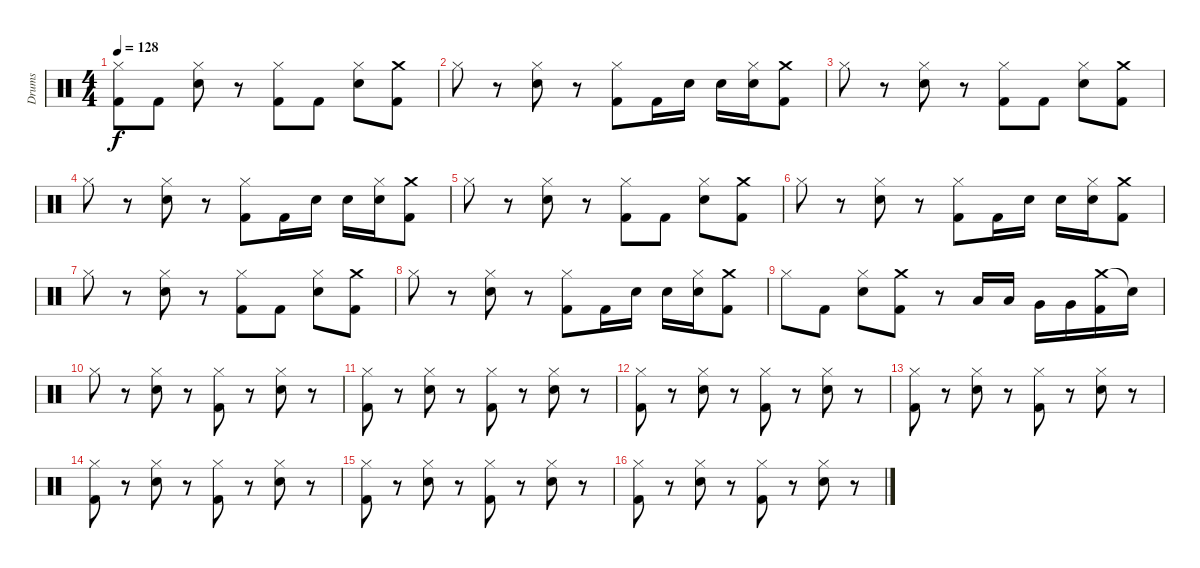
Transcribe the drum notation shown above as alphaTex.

\track ("Drums" "Drums") {instrument percussion}
\staff {score}
\articulation defaults
\ts (4 4)
\tempo 128
\clef neutral
\ks c
("Hi-Hat (closed)" "Kick (hit) 2").8{dy f} "Kick (hit) 2".8 ("Hi-Hat (closed)" "Snare (hit) 2").8 r.8 ("Hi-Hat (closed)" "Kick (hit) 2").8 "Kick (hit) 2".8 ("Hi-Hat (closed)" "Snare (hit) 2").8 ("Crash medium (hit)" "Kick (hit) 2").8 |
"Hi-Hat (closed)".8 r.8 ("Hi-Hat (closed)" "Snare (hit) 2").8 r.8 ("Hi-Hat (closed)" "Kick (hit) 2").8 "Kick (hit) 2".16 "Snare (hit) 2".16 "Snare (hit) 2".16 ("Hi-Hat (closed)" "Snare (hit) 2").16 ("Crash medium (hit)" "Kick (hit) 2").8 |
"Hi-Hat (closed)".8 r.8 ("Hi-Hat (closed)" "Snare (hit) 2").8 r.8 ("Hi-Hat (closed)" "Kick (hit) 2").8 "Kick (hit) 2".8 ("Hi-Hat (closed)" "Snare (hit) 2").8 ("Crash medium (hit)" "Kick (hit) 2").8 |
"Hi-Hat (closed)".8 r.8 ("Hi-Hat (closed)" "Snare (hit) 2").8 r.8 ("Hi-Hat (closed)" "Kick (hit) 2").8 "Kick (hit) 2".16 "Snare (hit) 2".16 "Snare (hit) 2".16 ("Hi-Hat (closed)" "Snare (hit) 2").16 ("Crash medium (hit)" "Kick (hit) 2").8 |
"Hi-Hat (closed)".8 r.8 ("Hi-Hat (closed)" "Snare (hit) 2").8 r.8 ("Hi-Hat (closed)" "Kick (hit) 2").8 "Kick (hit) 2".8 ("Hi-Hat (closed)" "Snare (hit) 2").8 ("Crash medium (hit)" "Kick (hit) 2").8 |
"Hi-Hat (closed)".8 r.8 ("Hi-Hat (closed)" "Snare (hit) 2").8 r.8 ("Hi-Hat (closed)" "Kick (hit) 2").8 "Kick (hit) 2".16 "Snare (hit) 2".16 "Snare (hit) 2".16 ("Hi-Hat (closed)" "Snare (hit) 2").16 ("Crash medium (hit)" "Kick (hit) 2").8 |
"Hi-Hat (closed)".8 r.8 ("Hi-Hat (closed)" "Snare (hit) 2").8 r.8 ("Hi-Hat (closed)" "Kick (hit) 2").8 "Kick (hit) 2".8 ("Hi-Hat (closed)" "Snare (hit) 2").8 ("Crash medium (hit)" "Kick (hit) 2").8 |
"Hi-Hat (closed)".8 r.8 ("Hi-Hat (closed)" "Snare (hit) 2").8 r.8 ("Hi-Hat (closed)" "Kick (hit) 2").8 "Kick (hit) 2".16 "Snare (hit) 2".16 "Snare (hit) 2".16 ("Hi-Hat (closed)" "Snare (hit) 2").16 ("Crash medium (hit)" "Kick (hit) 2").8 |
"Hi-Hat (closed)".8 "Kick (hit) 2".8 ("Hi-Hat (closed)" "Snare (hit) 2").8 ("Crash medium (hit)" "Kick (hit) 2").8 r.8 "Low Tom (hit)".16 "Low Tom (hit)".16 "Very Low Tom (hit)".16 "Very Low Tom (hit)".16 ("Crash medium (hit)" "Kick (hit) 2").16 "Snare (hit)"{t}.16 |
"Hi-Hat (closed)".8 r.8 ("Hi-Hat (closed)" "Snare (hit) 2").8 r.8 ("Hi-Hat (closed)" "Kick (hit) 2").8 r.8 ("Hi-Hat (closed)" "Snare (hit) 2").8 r.8 |
("Hi-Hat (closed)" "Kick (hit) 2").8 r.8 ("Hi-Hat (closed)" "Snare (hit) 2").8 r.8 ("Hi-Hat (closed)" "Kick (hit) 2").8 r.8 ("Hi-Hat (closed)" "Snare (hit) 2").8 r.8 |
("Hi-Hat (closed)" "Kick (hit) 2").8 r.8 ("Hi-Hat (closed)" "Snare (hit) 2").8 r.8 ("Hi-Hat (closed)" "Kick (hit) 2").8 r.8 ("Hi-Hat (closed)" "Snare (hit) 2").8 r.8 |
("Hi-Hat (closed)" "Kick (hit) 2").8 r.8 ("Hi-Hat (closed)" "Snare (hit) 2").8 r.8 ("Hi-Hat (closed)" "Kick (hit) 2").8 r.8 ("Hi-Hat (closed)" "Snare (hit) 2").8 r.8 |
("Hi-Hat (closed)" "Kick (hit) 2").8 r.8 ("Hi-Hat (closed)" "Snare (hit) 2").8 r.8 ("Hi-Hat (closed)" "Kick (hit) 2").8 r.8 ("Hi-Hat (closed)" "Snare (hit) 2").8 r.8 |
("Hi-Hat (closed)" "Kick (hit) 2").8 r.8 ("Hi-Hat (closed)" "Snare (hit) 2").8 r.8 ("Hi-Hat (closed)" "Kick (hit) 2").8 r.8 ("Hi-Hat (closed)" "Snare (hit) 2").8 r.8 |
("Hi-Hat (closed)" "Kick (hit) 2").8 r.8 ("Hi-Hat (closed)" "Snare (hit) 2").8 r.8 ("Hi-Hat (closed)" "Kick (hit) 2").8 r.8 ("Hi-Hat (closed)" "Snare (hit) 2").8 r.8
